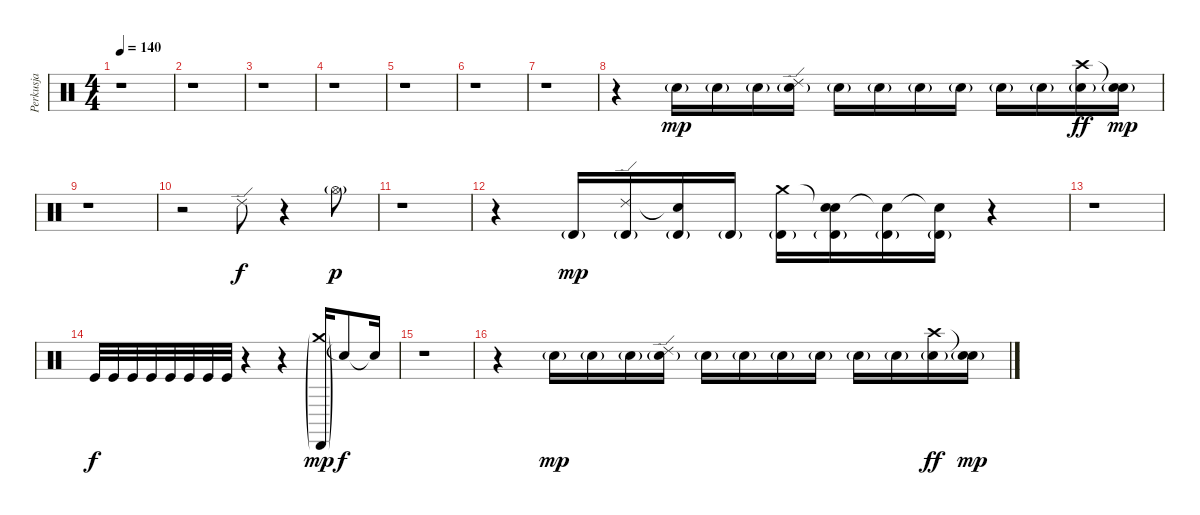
\track ("Perkusja" "Perkusja") {instrument percussion}
\staff {score}
\articulation defaults
\ts (4 4)
\tempo 140
\clef neutral
\ks c
r.1{dy mp} |
r.1 |
r.1 |
r.1 |
r.1 |
r.1 |
r.1 |
r.4 "Snare (hit) 2"{g}.16 "Snare (hit) 2"{g}.16 "Snare (hit) 2"{g}.16 ("Snare (hit) 2"{g} "Ride (edge) 2").16 "Snare (hit) 2"{g}.16 "Snare (hit) 2"{g}.16 "Snare (hit) 2"{g}.16 "Snare (hit) 2"{g}.16 "Snare (hit) 2"{g}.16 "Snare (hit) 2"{g}.16 ("Snare (hit) 2"{g} "Crash high (hit)").16{dy ff} ("Snare (hit) 2"{g} "Snare (hit)"{t}).16{dy mp} |
r.1 |
r.2 "Ride (edge) 2".8{dy f} r.4 "Hi-Hat (open)"{g}.8{dy p} |
r.1 |
r.4 "Timbale high (hit)"{g}.16{dy mp} ("Timbale high (hit)"{g} "Ride (edge) 2").16 ("Timbale high (hit)"{g} "Snare (hit)"{t}).16 "Timbale high (hit)"{g}.16 ("Timbale high (hit)"{g} "Crash medium (hit)").16 ("Timbale high (hit)"{g} "Snare (hit)"{t} "Snare (hit)").16 ("Timbale high (hit)"{g} "Snare (hit)"{t}).16 ("Timbale high (hit)"{g} "Snare (hit)"{t}).16 r.4 |
r.1 |
"Kick (hit)".32{dy f} "Kick (hit)".32 "Kick (hit)".32 "Kick (hit)".32 "Kick (hit)".32 "Kick (hit)".32 "Kick (hit)".32 "Kick (hit)".32 r.4 r.4 ("Crash medium (hit)"{g} "Cabasa (hit)"{g}).16{dy mp} "Snare (hit)"{t}.8{dy f} "Snare (hit)"{t}.16 |
r.1 |
r.4 "Snare (hit) 2"{g}.16{dy mp} "Snare (hit) 2"{g}.16 "Snare (hit) 2"{g}.16 ("Snare (hit) 2"{g} "Ride (edge) 2").16 "Snare (hit) 2"{g}.16 "Snare (hit) 2"{g}.16 "Snare (hit) 2"{g}.16 "Snare (hit) 2"{g}.16 "Snare (hit) 2"{g}.16 "Snare (hit) 2"{g}.16 ("Snare (hit) 2"{g} "Crash high (hit)").16{dy ff} ("Snare (hit) 2"{g} "Snare (hit)"{t}).16{dy mp}
